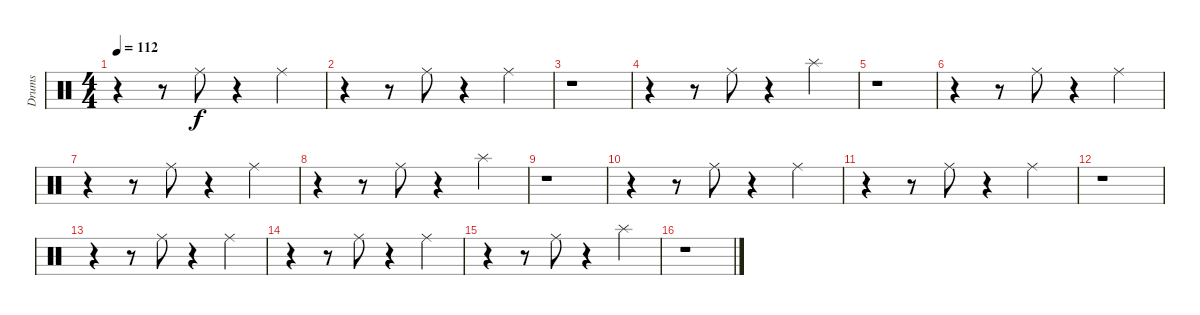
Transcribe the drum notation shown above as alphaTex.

\track ("Drums" "Drums") {instrument percussion}
\staff {score}
\articulation defaults
\ts (4 4)
\tempo 112
\clef neutral
\ks c
r.4{dy f} r.8 "Ride (middle)".8 r.4 "Ride (middle)".4 |
r.4 r.8 "Ride (middle)".8 r.4 "Ride (middle)".4 |
r.1 |
r.4 r.8 "Ride (middle)".8 r.4 "Splash (hit)".4 |
r.1 |
r.4 r.8 "Ride (middle)".8 r.4 "Ride (middle)".4 |
r.4 r.8 "Ride (middle)".8 r.4 "Ride (middle)".4 |
r.4 r.8 "Ride (middle)".8 r.4 "Splash (hit)".4 |
r.1 |
r.4 r.8 "Ride (middle)".8 r.4 "Ride (middle)".4 |
r.4 r.8 "Ride (middle)".8 r.4 "Ride (middle)".4 |
r.1 |
r.4 r.8 "Ride (middle)".8 r.4 "Ride (middle)".4 |
r.4 r.8 "Ride (middle)".8 r.4 "Ride (middle)".4 |
r.4 r.8 "Ride (middle)".8 r.4 "Splash (hit)".4 |
r.1
